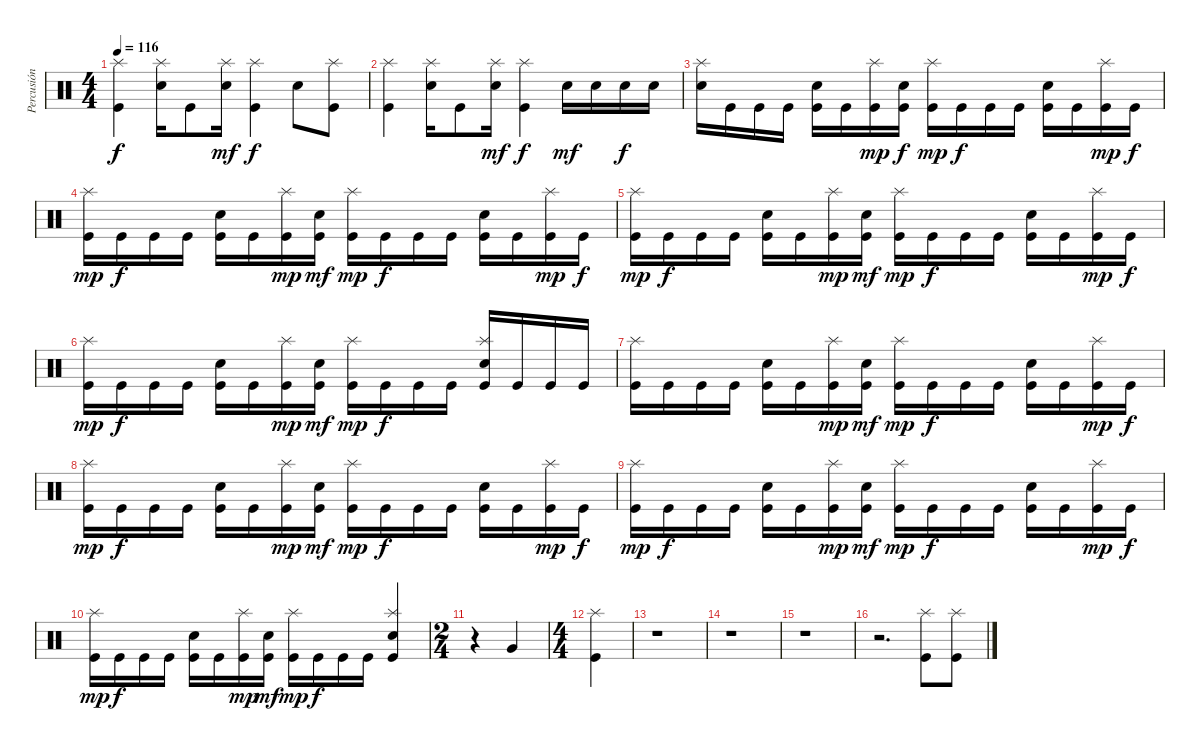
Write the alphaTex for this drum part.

\track ("Percusión" "Percusión") {instrument percussion}
\staff {score}
\articulation defaults
\ts (4 4)
\tempo 116
\clef neutral
\ks c
("Kick (hit)" "Splash (hit)").4{dy f} ("Snare (hit) 2" "Splash (hit)").16 "Kick (hit)".8 ("Snare (hit) 2" "Splash (hit)").16{dy mf} ("Kick (hit)" "Splash (hit)").4{dy f} "Snare (hit) 2".8 ("Kick (hit)" "Splash (hit)").8 |
("Kick (hit)" "Splash (hit)").4 ("Snare (hit) 2" "Splash (hit)").16 "Kick (hit)".8 ("Snare (hit) 2" "Splash (hit)").16{dy mf} ("Kick (hit)" "Splash (hit)").4{dy f} "Snare (hit) 2".16{dy mf} "Snare (hit) 2".16 "Snare (hit) 2".16{dy f} "Snare (hit) 2".16 |
("Snare (hit)" "Splash (hit)").16 "Kick (hit)".16 "Kick (hit)".16 "Kick (hit)".16 ("Kick (hit)" "Snare (hit) 2").16 "Kick (hit)".16 ("Kick (hit)" "Splash (hit)").16{dy mp} ("Kick (hit)" "Snare (hit) 2").16{dy f} ("Kick (hit)" "Splash (hit)").16{dy mp} "Kick (hit)".16{dy f} "Kick (hit)".16 "Kick (hit)".16 ("Kick (hit)" "Snare (hit) 2").16 "Kick (hit)".16 ("Kick (hit)" "Splash (hit)").16{dy mp} "Kick (hit)".16{dy f} |
("Kick (hit)" "Splash (hit)").16{dy mp} "Kick (hit)".16{dy f} "Kick (hit)".16 "Kick (hit)".16 ("Kick (hit)" "Snare (hit) 2").16 "Kick (hit)".16 ("Kick (hit)" "Splash (hit)").16{dy mp} ("Kick (hit)" "Snare (hit) 2").16{dy mf} ("Kick (hit)" "Splash (hit)").16{dy mp} "Kick (hit)".16{dy f} "Kick (hit)".16 "Kick (hit)".16 ("Kick (hit)" "Snare (hit) 2").16 "Kick (hit)".16 ("Kick (hit)" "Splash (hit)").16{dy mp} "Kick (hit)".16{dy f} |
("Kick (hit)" "Splash (hit)").16{dy mp} "Kick (hit)".16{dy f} "Kick (hit)".16 "Kick (hit)".16 ("Kick (hit)" "Snare (hit) 2").16 "Kick (hit)".16 ("Kick (hit)" "Splash (hit)").16{dy mp} ("Kick (hit)" "Snare (hit) 2").16{dy mf} ("Kick (hit)" "Splash (hit)").16{dy mp} "Kick (hit)".16{dy f} "Kick (hit)".16 "Kick (hit)".16 ("Kick (hit)" "Snare (hit) 2").16 "Kick (hit)".16 ("Kick (hit)" "Splash (hit)").16{dy mp} "Kick (hit)".16{dy f} |
("Kick (hit)" "Splash (hit)").16{dy mp} "Kick (hit)".16{dy f} "Kick (hit)".16 "Kick (hit)".16 ("Kick (hit)" "Snare (hit) 2").16 "Kick (hit)".16 ("Kick (hit)" "Splash (hit)").16{dy mp} ("Kick (hit)" "Snare (hit) 2").16{dy mf} ("Kick (hit)" "Splash (hit)").16{dy mp} "Kick (hit)".16{dy f} "Kick (hit)".16 "Kick (hit)".16 ("Kick (hit)" "Snare (hit) 2" "Splash (hit)").16 "Kick (hit)".16 "Kick (hit)".16 "Kick (hit)".16 |
("Kick (hit)" "Splash (hit)").16 "Kick (hit)".16 "Kick (hit)".16 "Kick (hit)".16 ("Kick (hit)" "Snare (hit) 2").16 "Kick (hit)".16 ("Kick (hit)" "Splash (hit)").16{dy mp} ("Kick (hit)" "Snare (hit) 2").16{dy mf} ("Kick (hit)" "Splash (hit)").16{dy mp} "Kick (hit)".16{dy f} "Kick (hit)".16 "Kick (hit)".16 ("Kick (hit)" "Snare (hit) 2").16 "Kick (hit)".16 ("Kick (hit)" "Splash (hit)").16{dy mp} "Kick (hit)".16{dy f} |
("Kick (hit)" "Splash (hit)").16{dy mp} "Kick (hit)".16{dy f} "Kick (hit)".16 "Kick (hit)".16 ("Kick (hit)" "Snare (hit) 2").16 "Kick (hit)".16 ("Kick (hit)" "Splash (hit)").16{dy mp} ("Kick (hit)" "Snare (hit) 2").16{dy mf} ("Kick (hit)" "Splash (hit)").16{dy mp} "Kick (hit)".16{dy f} "Kick (hit)".16 "Kick (hit)".16 ("Kick (hit)" "Snare (hit) 2").16 "Kick (hit)".16 ("Kick (hit)" "Splash (hit)").16{dy mp} "Kick (hit)".16{dy f} |
("Kick (hit)" "Splash (hit)").16{dy mp} "Kick (hit)".16{dy f} "Kick (hit)".16 "Kick (hit)".16 ("Kick (hit)" "Snare (hit) 2").16 "Kick (hit)".16 ("Kick (hit)" "Splash (hit)").16{dy mp} ("Kick (hit)" "Snare (hit) 2").16{dy mf} ("Kick (hit)" "Splash (hit)").16{dy mp} "Kick (hit)".16{dy f} "Kick (hit)".16 "Kick (hit)".16 ("Kick (hit)" "Snare (hit) 2").16 "Kick (hit)".16 ("Kick (hit)" "Splash (hit)").16{dy mp} "Kick (hit)".16{dy f} |
("Kick (hit)" "Splash (hit)").16{dy mp} "Kick (hit)".16{dy f} "Kick (hit)".16 "Kick (hit)".16 ("Kick (hit)" "Snare (hit) 2").16 "Kick (hit)".16 ("Kick (hit)" "Splash (hit)").16{dy mp} ("Kick (hit)" "Snare (hit) 2").16{dy mf} ("Kick (hit)" "Splash (hit)").16{dy mp} "Kick (hit)".16{dy f} "Kick (hit)".16 "Kick (hit)".16 ("Kick (hit)" "Snare (hit) 2" "Splash (hit)").4 |
\ts (2 4)
r.4 "Very Low Tom (hit)".4 |
\ts (4 4)
("Kick (hit)" "Splash (hit)").4 |
r.1 |
r.1 |
r.1 |
r.2{d} ("Kick (hit)" "Splash (hit)").8 ("Kick (hit)" "Splash (hit)").8
